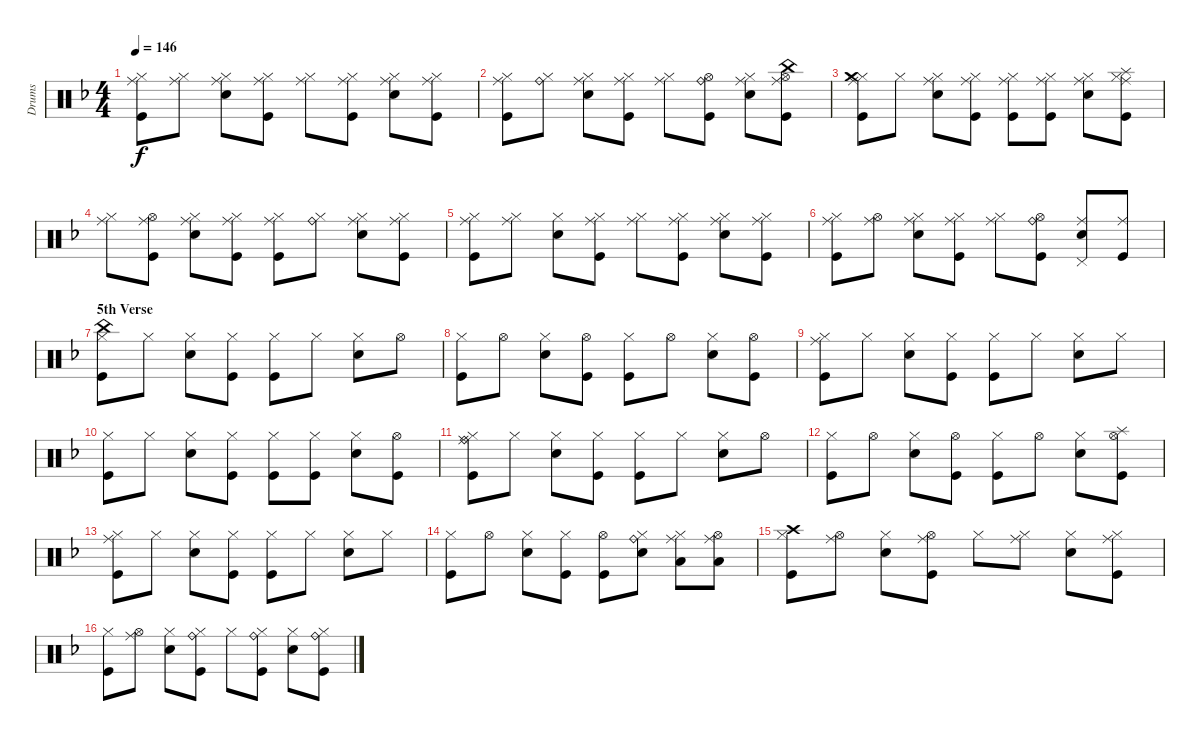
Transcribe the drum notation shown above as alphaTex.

\track ("Drums" "Drums") {instrument percussion}
\staff {score}
\articulation defaults
\ts (4 4)
\tempo 146
\clef neutral
\ks f
("Ride (middle)" "Kick (hit)" "Hi-Hat (closed)").8{dy f} ("Hi-Hat (closed)" "Ride (middle)").8 ("Ride (middle)" "Snare (hit) 2" "Hi-Hat (closed)").8 ("Hi-Hat (closed)" "Ride (middle)" "Kick (hit)").8 ("Hi-Hat (closed)" "Ride (middle)").8 ("Hi-Hat (closed)" "Ride (middle)" "Kick (hit)").8 ("Snare (hit) 2" "Hi-Hat (closed)" "Ride (middle)").8 ("Kick (hit)" "Hi-Hat (closed)" "Ride (middle)").8 |
("Kick (hit)" "Hi-Hat (closed)" "Ride (middle)").8 ("Hi-Hat (closed)" "Ride (bell)").8 ("Snare (hit) 2" "Hi-Hat (closed)" "Ride (middle)").8 ("Kick (hit)" "Hi-Hat (closed)" "Ride (middle)").8 ("Hi-Hat (closed)" "Ride (middle)").8 ("Kick (hit)" "Hi-Hat (open)" "Ride (bell)").8 ("Snare (hit) 2" "Hi-Hat (closed)" "Ride (middle)").8 ("China (hit)" "Ride (middle)" "Hi-Hat (open)" "Kick (hit)").8 |
("Kick (hit)" "Hi-Hat (closed)" "Ride (middle)" "Crash medium (hit)").8 "Hi-Hat (closed)".8 ("Snare (hit) 2" "Hi-Hat (closed)" "Ride (middle)").8 ("Hi-Hat (closed)" "Ride (middle)" "Kick (hit)").8 ("Hi-Hat (closed)" "Ride (middle)" "Kick (hit)").8 ("Ride (middle)" "Kick (hit)" "Hi-Hat (closed)").8 ("Snare (hit) 2" "Hi-Hat (closed)" "Ride (middle)").8 ("Ride (middle)" "Splash (hit)" "Kick (hit)" "Hi-Hat (closed)").8 |
("Hi-Hat (closed)" "Ride (middle)").8 ("Kick (hit)" "Hi-Hat (open)" "Ride (middle)").8 ("Snare (hit) 2" "Hi-Hat (closed)" "Ride (middle)").8 ("Kick (hit)" "Hi-Hat (closed)" "Ride (middle)").8 ("Kick (hit)" "Hi-Hat (closed)" "Ride (middle)").8 ("Hi-Hat (closed)" "Ride (bell)").8 ("Snare (hit) 2" "Hi-Hat (closed)" "Ride (middle)").8 ("Ride (middle)" "Kick (hit)" "Hi-Hat (closed)").8 |
("Kick (hit)" "Hi-Hat (closed)" "Ride (middle)").8 ("Hi-Hat (closed)" "Ride (middle)").8 ("Snare (hit) 2" "Hi-Hat (closed)").8 ("Kick (hit)" "Hi-Hat (closed)" "Ride (middle)").8 ("Hi-Hat (closed)" "Ride (middle)").8 ("Kick (hit)" "Hi-Hat (closed)" "Ride (middle)").8 ("Snare (hit) 2" "Hi-Hat (closed)" "Ride (middle)").8 ("Kick (hit)" "Hi-Hat (closed)" "Ride (middle)").8 |
("Ride (middle)" "Kick (hit)" "Hi-Hat (closed)").8 ("Hi-Hat (open)" "Ride (middle)").8 ("Ride (middle)" "Snare (hit) 2" "Hi-Hat (closed)").8 ("Kick (hit)" "Hi-Hat (closed)" "Ride (middle)").8 ("Hi-Hat (closed)" "Ride (middle)").8 ("Ride (bell)" "Kick (hit)" "Hi-Hat (open)").8 ("Snare (hit) 2" "Pedal Hi-Hat (hit)" "Ride (middle)").8 ("Kick (hit)" "Ride (middle)").8 |
\section ("" "5th Verse")
("China (hit)" "Kick (hit)" "Hi-Hat (closed)").8 "Hi-Hat (closed)".8 ("Snare (hit) 2" "Hi-Hat (closed)").8 ("Kick (hit)" "Hi-Hat (closed)").8 ("Kick (hit)" "Hi-Hat (closed)").8 "Hi-Hat (closed)".8 ("Snare (hit) 2" "Hi-Hat (closed)").8 "Hi-Hat (open)".8 |
("Kick (hit)" "Hi-Hat (closed)").8 "Hi-Hat (open)".8 ("Snare (hit) 2" "Hi-Hat (closed)").8 ("Kick (hit)" "Hi-Hat (open)").8 ("Kick (hit)" "Hi-Hat (closed)").8 "Hi-Hat (open)".8 ("Snare (hit) 2" "Hi-Hat (closed)").8 ("Kick (hit)" "Hi-Hat (open)").8 |
("Ride (middle)" "Kick (hit)" "Hi-Hat (closed)").8 "Hi-Hat (closed)".8 ("Snare (hit) 2" "Hi-Hat (closed)").8 ("Kick (hit)" "Hi-Hat (closed)").8 ("Kick (hit)" "Hi-Hat (closed)").8 "Hi-Hat (closed)".8 ("Snare (hit) 2" "Hi-Hat (closed)").8 "Hi-Hat (closed)".8 |
("Kick (hit)" "Hi-Hat (closed)").8 "Hi-Hat (closed)".8 ("Snare (hit) 2" "Hi-Hat (closed)").8 ("Kick (hit)" "Hi-Hat (closed)").8 ("Kick (hit)" "Hi-Hat (closed)").8 ("Kick (hit)" "Hi-Hat (closed)").8 ("Snare (hit) 2" "Hi-Hat (closed)").8 ("Kick (hit)" "Hi-Hat (open)").8 |
("Hi-Hat (closed)" "Kick (hit)" "Ride (bell)" "Ride (middle)").8 "Hi-Hat (closed)".8 ("Snare (hit) 2" "Hi-Hat (closed)").8 ("Kick (hit)" "Hi-Hat (closed)").8 ("Kick (hit)" "Hi-Hat (closed)").8 "Hi-Hat (closed)".8 ("Snare (hit) 2" "Hi-Hat (closed)").8 "Hi-Hat (open)".8 |
("Kick (hit)" "Hi-Hat (closed)").8 "Hi-Hat (open)".8 ("Snare (hit) 2" "Hi-Hat (closed)").8 ("Kick (hit)" "Hi-Hat (open)").8 ("Kick (hit)" "Hi-Hat (closed)").8 "Hi-Hat (open)".8 ("Snare (hit) 2" "Hi-Hat (closed)").8 ("Splash (hit)" "Kick (hit)" "Hi-Hat (open)").8 |
("Kick (hit)" "Hi-Hat (closed)" "Ride (middle)").8 "Hi-Hat (closed)".8 ("Snare (hit) 2" "Hi-Hat (closed)").8 ("Kick (hit)" "Hi-Hat (closed)").8 ("Kick (hit)" "Hi-Hat (closed)").8 "Hi-Hat (closed)".8 ("Snare (hit) 2" "Hi-Hat (closed)").8 "Hi-Hat (closed)".8 |
("Kick (hit)" "Hi-Hat (closed)").8 "Hi-Hat (open)".8 ("Snare (hit) 2" "Hi-Hat (closed)").8 ("Kick (hit)" "Hi-Hat (closed)").8 ("Kick (hit)" "Hi-Hat (open)").8 ("Snare (hit) 2" "Hi-Hat (closed)" "Ride (bell)").8 ("Hi-Hat (closed)" "Low Tom (hit)" "Ride (middle)").8 ("Hi-Hat (open)" "Ride (middle)" "Low Floor Tom (hit)").8 |
("Kick (hit)" "Hi-Hat (closed)" "Crash high (hit)").8 ("Hi-Hat (open)" "Ride (middle)").8 ("Snare (hit) 2" "Hi-Hat (closed)").8 ("Kick (hit)" "Hi-Hat (open)" "Ride (middle)").8 "Hi-Hat (closed)".8 ("Hi-Hat (closed)" "Ride (middle)").8 ("Snare (hit) 2" "Hi-Hat (closed)").8 ("Hi-Hat (closed)" "Ride (middle)" "Kick (hit)").8 |
("Kick (hit)" "Hi-Hat (closed)").8 ("Hi-Hat (open)" "Ride (middle)").8 ("Snare (hit) 2" "Hi-Hat (closed)").8 ("Hi-Hat (closed)" "Ride (bell)" "Kick (hit)").8 "Hi-Hat (closed)".8 ("Kick (hit)" "Hi-Hat (closed)" "Ride (bell)").8 ("Snare (hit) 2" "Hi-Hat (closed)").8 ("Kick (hit)" "Hi-Hat (closed)" "Ride (bell)").8
